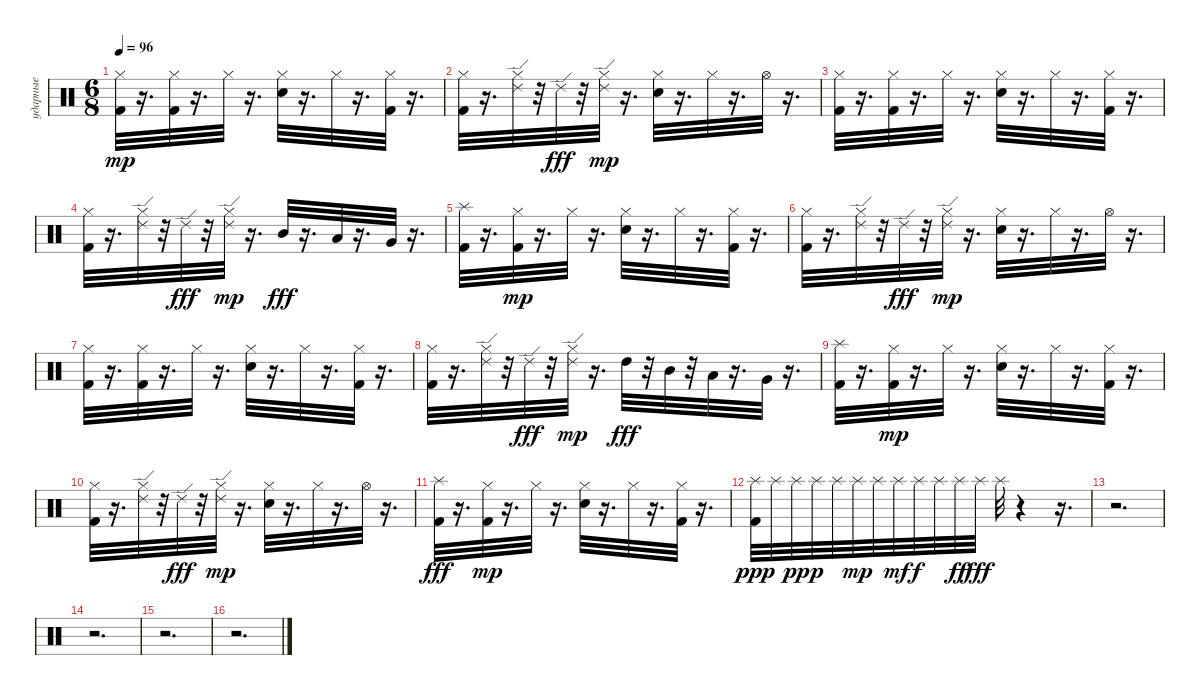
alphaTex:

\track ("ударные" "ударные") {instrument percussion}
\staff {score}
\articulation defaults
\ts (6 8)
\tempo 96
\clef neutral
\ks c
("Kick (hit) 2" "Hi-Hat (closed)").32{dy mp} r.16{d} ("Kick (hit) 2" "Hi-Hat (closed)").32 r.16{d} "Hi-Hat (closed)".32 r.16{d} ("Snare (hit) 2" "Hi-Hat (closed)").32 r.16{d} "Hi-Hat (closed)".32 r.16{d} ("Kick (hit) 2" "Hi-Hat (closed)").32 r.16{d} |
("Kick (hit) 2" "Hi-Hat (closed)").32 r.16{d} ("Ride (edge) 2" "Hi-Hat (closed)").32 r.32 "Ride (edge) 2".32{dy fff} r.32 ("Ride (edge) 2" "Hi-Hat (closed)").32{dy mp} r.16{d} ("Snare (hit) 2" "Hi-Hat (closed)").32 r.16{d} "Hi-Hat (closed)".32 r.16{d} "Hi-Hat (open)".32 r.16{d} |
("Kick (hit) 2" "Hi-Hat (closed)").32 r.16{d} ("Kick (hit) 2" "Hi-Hat (closed)").32 r.16{d} "Hi-Hat (closed)".32 r.16{d} ("Snare (hit) 2" "Hi-Hat (closed)").32 r.16{d} "Hi-Hat (closed)".32 r.16{d} ("Kick (hit) 2" "Hi-Hat (closed)").32 r.16{d} |
("Kick (hit) 2" "Hi-Hat (closed)").32 r.16{d} ("Ride (edge) 2" "Hi-Hat (closed)").32 r.32 "Ride (edge) 2".32{dy fff} r.32 ("Ride (edge) 2" "Hi-Hat (closed)").32{dy mp} r.16{d} "Mid Tom (hit)".32{dy fff} r.16{d} "Low Tom (hit)".32 r.16{d} "Very Low Tom (hit)".32 r.16{d} |
("Kick (hit) 2" "Splash (hit)").32 r.16{d} ("Kick (hit) 2" "Hi-Hat (closed)").32{dy mp} r.16{d} "Hi-Hat (closed)".32 r.16{d} ("Snare (hit) 2" "Hi-Hat (closed)").32 r.16{d} "Hi-Hat (closed)".32 r.16{d} ("Kick (hit) 2" "Hi-Hat (closed)").32 r.16{d} |
("Kick (hit) 2" "Hi-Hat (closed)").32 r.16{d} ("Ride (edge) 2" "Hi-Hat (closed)").32 r.32 "Ride (edge) 2".32{dy fff} r.32 ("Ride (edge) 2" "Hi-Hat (closed)").32{dy mp} r.16{d} ("Snare (hit) 2" "Hi-Hat (closed)").32 r.16{d} "Hi-Hat (closed)".32 r.16{d} "Hi-Hat (open)".32 r.16{d} |
("Kick (hit) 2" "Hi-Hat (closed)").32 r.16{d} ("Kick (hit) 2" "Hi-Hat (closed)").32 r.16{d} "Hi-Hat (closed)".32 r.16{d} ("Snare (hit) 2" "Hi-Hat (closed)").32 r.16{d} "Hi-Hat (closed)".32 r.16{d} ("Kick (hit) 2" "Hi-Hat (closed)").32 r.16{d} |
("Kick (hit) 2" "Hi-Hat (closed)").32 r.16{d} ("Ride (edge) 2" "Hi-Hat (closed)").32 r.32 "Ride (edge) 2".32{dy fff} r.32 ("Ride (edge) 2" "Hi-Hat (closed)").32{dy mp} r.16{d} "High Tom (hit)".32{dy fff} r.32 "Mid Tom (hit)".32 r.32 "Low Tom (hit)".32 r.16{d} "Very Low Tom (hit)".32 r.16{d} |
("Kick (hit) 2" "Splash (hit)").32 r.16{d} ("Kick (hit) 2" "Hi-Hat (closed)").32{dy mp} r.16{d} "Hi-Hat (closed)".32 r.16{d} ("Snare (hit) 2" "Hi-Hat (closed)").32 r.16{d} "Hi-Hat (closed)".32 r.16{d} ("Kick (hit) 2" "Hi-Hat (closed)").32 r.16{d} |
("Kick (hit) 2" "Hi-Hat (closed)").32 r.16{d} ("Ride (edge) 2" "Hi-Hat (closed)").32 r.32 "Ride (edge) 2".32{dy fff} r.32 ("Ride (edge) 2" "Hi-Hat (closed)").32{dy mp} r.16{d} ("Snare (hit) 2" "Hi-Hat (closed)").32 r.16{d} "Hi-Hat (closed)".32 r.16{d} "Hi-Hat (open)".32 r.16{d} |
("Kick (hit) 2" "Splash (hit)").32{dy fff} r.16{d} ("Kick (hit) 2" "Hi-Hat (closed)").32{dy mp} r.16{d} "Hi-Hat (closed)".32 r.16{d} ("Snare (hit) 2" "Hi-Hat (closed)").32 r.16{d} "Hi-Hat (closed)".32 r.16{d} ("Kick (hit) 2" "Hi-Hat (closed)").32 r.16{d} |
("Kick (hit) 2" "Splash (hit)").32{dy ppp} "Splash (hit)".32 "Splash (hit)".32{dy pp} "Splash (hit)".32{dy p} "Splash (hit)".32 "Splash (hit)".32{dy mp} "Splash (hit)".32 "Splash (hit)".32{dy mf} "Splash (hit)".32{dy f} "Splash (hit)".32 "Splash (hit)".32{dy ff} "Splash (hit)".32{dy fff} "Splash (hit)".32 r.4 r.16{d} |
r.2{d} |
r.2{d} |
r.2{d} |
r.2{d}
